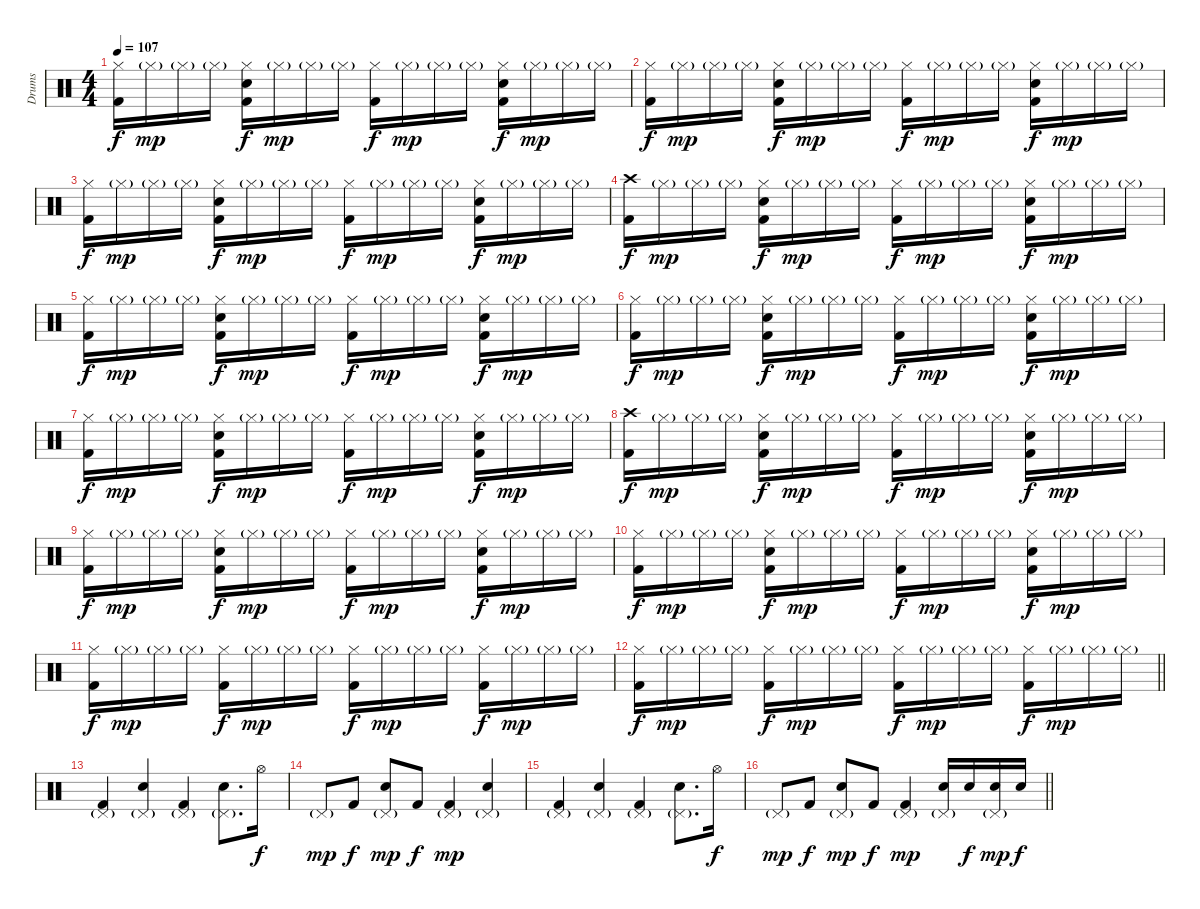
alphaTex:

\track ("Drums" "Drums") {instrument percussion}
\staff {score}
\articulation defaults
\ts (4 4)
\tempo 107
\clef neutral
\ks c
("Hi-Hat (closed)" "Kick (hit) 2").16{dy f} "Hi-Hat (closed)"{g}.16{dy mp} "Hi-Hat (closed)"{g}.16 "Hi-Hat (closed)"{g}.16 ("Hi-Hat (closed)" "Snare (hit) 2" "Kick (hit) 2").16{dy f} "Hi-Hat (closed)"{g}.16{dy mp} "Hi-Hat (closed)"{g}.16 "Hi-Hat (closed)"{g}.16 ("Hi-Hat (closed)" "Kick (hit) 2").16{dy f} "Hi-Hat (closed)"{g}.16{dy mp} "Hi-Hat (closed)"{g}.16 "Hi-Hat (closed)"{g}.16 ("Hi-Hat (closed)" "Snare (hit) 2" "Kick (hit) 2").16{dy f} "Hi-Hat (closed)"{g}.16{dy mp} "Hi-Hat (closed)"{g}.16 "Hi-Hat (closed)"{g}.16 |
("Hi-Hat (closed)" "Kick (hit) 2").16{dy f} "Hi-Hat (closed)"{g}.16{dy mp} "Hi-Hat (closed)"{g}.16 "Hi-Hat (closed)"{g}.16 ("Hi-Hat (closed)" "Snare (hit) 2" "Kick (hit) 2").16{dy f} "Hi-Hat (closed)"{g}.16{dy mp} "Hi-Hat (closed)"{g}.16 "Hi-Hat (closed)"{g}.16 ("Hi-Hat (closed)" "Kick (hit) 2").16{dy f} "Hi-Hat (closed)"{g}.16{dy mp} "Hi-Hat (closed)"{g}.16 "Hi-Hat (closed)"{g}.16 ("Hi-Hat (closed)" "Snare (hit) 2" "Kick (hit) 2").16{dy f} "Hi-Hat (closed)"{g}.16{dy mp} "Hi-Hat (closed)"{g}.16 "Hi-Hat (closed)"{g}.16 |
("Hi-Hat (closed)" "Kick (hit) 2").16{dy f} "Hi-Hat (closed)"{g}.16{dy mp} "Hi-Hat (closed)"{g}.16 "Hi-Hat (closed)"{g}.16 ("Hi-Hat (closed)" "Snare (hit) 2" "Kick (hit) 2").16{dy f} "Hi-Hat (closed)"{g}.16{dy mp} "Hi-Hat (closed)"{g}.16 "Hi-Hat (closed)"{g}.16 ("Hi-Hat (closed)" "Kick (hit) 2").16{dy f} "Hi-Hat (closed)"{g}.16{dy mp} "Hi-Hat (closed)"{g}.16 "Hi-Hat (closed)"{g}.16 ("Hi-Hat (closed)" "Snare (hit) 2" "Kick (hit) 2").16{dy f} "Hi-Hat (closed)"{g}.16{dy mp} "Hi-Hat (closed)"{g}.16 "Hi-Hat (closed)"{g}.16 |
("Crash high (hit)" "Kick (hit) 2").16{dy f} "Hi-Hat (closed)"{g}.16{dy mp} "Hi-Hat (closed)"{g}.16 "Hi-Hat (closed)"{g}.16 ("Hi-Hat (closed)" "Snare (hit) 2" "Kick (hit) 2").16{dy f} "Hi-Hat (closed)"{g}.16{dy mp} "Hi-Hat (closed)"{g}.16 "Hi-Hat (closed)"{g}.16 ("Hi-Hat (closed)" "Kick (hit) 2").16{dy f} "Hi-Hat (closed)"{g}.16{dy mp} "Hi-Hat (closed)"{g}.16 "Hi-Hat (closed)"{g}.16 ("Hi-Hat (closed)" "Snare (hit) 2" "Kick (hit) 2").16{dy f} "Hi-Hat (closed)"{g}.16{dy mp} "Hi-Hat (closed)"{g}.16 "Hi-Hat (closed)"{g}.16 |
("Hi-Hat (closed)" "Kick (hit) 2").16{dy f} "Hi-Hat (closed)"{g}.16{dy mp} "Hi-Hat (closed)"{g}.16 "Hi-Hat (closed)"{g}.16 ("Hi-Hat (closed)" "Snare (hit) 2" "Kick (hit) 2").16{dy f} "Hi-Hat (closed)"{g}.16{dy mp} "Hi-Hat (closed)"{g}.16 "Hi-Hat (closed)"{g}.16 ("Hi-Hat (closed)" "Kick (hit) 2").16{dy f} "Hi-Hat (closed)"{g}.16{dy mp} "Hi-Hat (closed)"{g}.16 "Hi-Hat (closed)"{g}.16 ("Hi-Hat (closed)" "Snare (hit) 2" "Kick (hit) 2").16{dy f} "Hi-Hat (closed)"{g}.16{dy mp} "Hi-Hat (closed)"{g}.16 "Hi-Hat (closed)"{g}.16 |
("Hi-Hat (closed)" "Kick (hit) 2").16{dy f} "Hi-Hat (closed)"{g}.16{dy mp} "Hi-Hat (closed)"{g}.16 "Hi-Hat (closed)"{g}.16 ("Hi-Hat (closed)" "Snare (hit) 2" "Kick (hit) 2").16{dy f} "Hi-Hat (closed)"{g}.16{dy mp} "Hi-Hat (closed)"{g}.16 "Hi-Hat (closed)"{g}.16 ("Hi-Hat (closed)" "Kick (hit) 2").16{dy f} "Hi-Hat (closed)"{g}.16{dy mp} "Hi-Hat (closed)"{g}.16 "Hi-Hat (closed)"{g}.16 ("Hi-Hat (closed)" "Snare (hit) 2" "Kick (hit) 2").16{dy f} "Hi-Hat (closed)"{g}.16{dy mp} "Hi-Hat (closed)"{g}.16 "Hi-Hat (closed)"{g}.16 |
("Hi-Hat (closed)" "Kick (hit) 2").16{dy f} "Hi-Hat (closed)"{g}.16{dy mp} "Hi-Hat (closed)"{g}.16 "Hi-Hat (closed)"{g}.16 ("Hi-Hat (closed)" "Snare (hit) 2" "Kick (hit) 2").16{dy f} "Hi-Hat (closed)"{g}.16{dy mp} "Hi-Hat (closed)"{g}.16 "Hi-Hat (closed)"{g}.16 ("Hi-Hat (closed)" "Kick (hit) 2").16{dy f} "Hi-Hat (closed)"{g}.16{dy mp} "Hi-Hat (closed)"{g}.16 "Hi-Hat (closed)"{g}.16 ("Hi-Hat (closed)" "Snare (hit) 2" "Kick (hit) 2").16{dy f} "Hi-Hat (closed)"{g}.16{dy mp} "Hi-Hat (closed)"{g}.16 "Hi-Hat (closed)"{g}.16 |
("Crash high (hit)" "Kick (hit) 2").16{dy f} "Hi-Hat (closed)"{g}.16{dy mp} "Hi-Hat (closed)"{g}.16 "Hi-Hat (closed)"{g}.16 ("Hi-Hat (closed)" "Snare (hit) 2" "Kick (hit) 2").16{dy f} "Hi-Hat (closed)"{g}.16{dy mp} "Hi-Hat (closed)"{g}.16 "Hi-Hat (closed)"{g}.16 ("Hi-Hat (closed)" "Kick (hit) 2").16{dy f} "Hi-Hat (closed)"{g}.16{dy mp} "Hi-Hat (closed)"{g}.16 "Hi-Hat (closed)"{g}.16 ("Hi-Hat (closed)" "Snare (hit) 2" "Kick (hit) 2").16{dy f} "Hi-Hat (closed)"{g}.16{dy mp} "Hi-Hat (closed)"{g}.16 "Hi-Hat (closed)"{g}.16 |
("Hi-Hat (closed)" "Kick (hit) 2").16{dy f} "Hi-Hat (closed)"{g}.16{dy mp} "Hi-Hat (closed)"{g}.16 "Hi-Hat (closed)"{g}.16 ("Hi-Hat (closed)" "Snare (hit) 2" "Kick (hit) 2").16{dy f} "Hi-Hat (closed)"{g}.16{dy mp} "Hi-Hat (closed)"{g}.16 "Hi-Hat (closed)"{g}.16 ("Hi-Hat (closed)" "Kick (hit) 2").16{dy f} "Hi-Hat (closed)"{g}.16{dy mp} "Hi-Hat (closed)"{g}.16 "Hi-Hat (closed)"{g}.16 ("Hi-Hat (closed)" "Snare (hit) 2" "Kick (hit) 2").16{dy f} "Hi-Hat (closed)"{g}.16{dy mp} "Hi-Hat (closed)"{g}.16 "Hi-Hat (closed)"{g}.16 |
("Hi-Hat (closed)" "Kick (hit) 2").16{dy f} "Hi-Hat (closed)"{g}.16{dy mp} "Hi-Hat (closed)"{g}.16 "Hi-Hat (closed)"{g}.16 ("Hi-Hat (closed)" "Snare (hit) 2" "Kick (hit) 2").16{dy f} "Hi-Hat (closed)"{g}.16{dy mp} "Hi-Hat (closed)"{g}.16 "Hi-Hat (closed)"{g}.16 ("Hi-Hat (closed)" "Kick (hit) 2").16{dy f} "Hi-Hat (closed)"{g}.16{dy mp} "Hi-Hat (closed)"{g}.16 "Hi-Hat (closed)"{g}.16 ("Hi-Hat (closed)" "Snare (hit) 2" "Kick (hit) 2").16{dy f} "Hi-Hat (closed)"{g}.16{dy mp} "Hi-Hat (closed)"{g}.16 "Hi-Hat (closed)"{g}.16 |
("Hi-Hat (closed)" "Kick (hit) 2").16{dy f} "Hi-Hat (closed)"{g}.16{dy mp} "Hi-Hat (closed)"{g}.16 "Hi-Hat (closed)"{g}.16 ("Hi-Hat (closed)" "Kick (hit) 2").16{dy f} "Hi-Hat (closed)"{g}.16{dy mp} "Hi-Hat (closed)"{g}.16 "Hi-Hat (closed)"{g}.16 ("Hi-Hat (closed)" "Kick (hit) 2").16{dy f} "Hi-Hat (closed)"{g}.16{dy mp} "Hi-Hat (closed)"{g}.16 "Hi-Hat (closed)"{g}.16 ("Hi-Hat (closed)" "Kick (hit) 2").16{dy f} "Hi-Hat (closed)"{g}.16{dy mp} "Hi-Hat (closed)"{g}.16 "Hi-Hat (closed)"{g}.16 |
\barLineRight lightlight
("Hi-Hat (closed)" "Kick (hit) 2").16{dy f} "Hi-Hat (closed)"{g}.16{dy mp} "Hi-Hat (closed)"{g}.16 "Hi-Hat (closed)"{g}.16 ("Hi-Hat (closed)" "Kick (hit) 2").16{dy f} "Hi-Hat (closed)"{g}.16{dy mp} "Hi-Hat (closed)"{g}.16 "Hi-Hat (closed)"{g}.16 ("Hi-Hat (closed)" "Kick (hit) 2").16{dy f} "Hi-Hat (closed)"{g}.16{dy mp} "Hi-Hat (closed)"{g}.16 "Hi-Hat (closed)"{g}.16 ("Hi-Hat (closed)" "Kick (hit) 2").16{dy f} "Hi-Hat (closed)"{g}.16{dy mp} "Hi-Hat (closed)"{g}.16 "Hi-Hat (closed)"{g}.16 |
("Pedal Hi-Hat (hit)"{g} "Kick (hit) 2").4 ("Pedal Hi-Hat (hit)"{g} "Snare (hit) 2").4 ("Pedal Hi-Hat (hit)"{g} "Kick (hit) 2").4 ("Pedal Hi-Hat (hit)"{g} "Snare (hit) 2").8{d} "Hi-Hat (open)".16{dy f} |
"Pedal Hi-Hat (hit)"{g}.8{dy mp} "Kick (hit) 2".8{dy f} ("Pedal Hi-Hat (hit)"{g} "Snare (hit) 2").8{dy mp} "Kick (hit) 2".8{dy f} ("Pedal Hi-Hat (hit)"{g} "Kick (hit) 2").4{dy mp} ("Pedal Hi-Hat (hit)"{g} "Snare (hit) 2").4 |
("Pedal Hi-Hat (hit)"{g} "Kick (hit) 2").4 ("Pedal Hi-Hat (hit)"{g} "Snare (hit) 2").4 ("Pedal Hi-Hat (hit)"{g} "Kick (hit) 2").4 ("Pedal Hi-Hat (hit)"{g} "Snare (hit) 2").8{d} "Hi-Hat (open)".16{dy f} |
\barLineRight lightlight "Pedal Hi-Hat (hit)"{g}.8{dy mp} "Kick (hit) 2".8{dy f}
("Pedal Hi-Hat (hit)"{g} "Snare (hit) 2").8{dy mp} "Kick (hit) 2".8{dy f} ("Pedal Hi-Hat (hit)"{g} "Kick (hit) 2").4{dy mp} ("Pedal Hi-Hat (hit)"{g} "Snare (hit) 2").16 "Snare (hit) 2".16{dy f} ("Pedal Hi-Hat (hit)"{g} "Snare (hit) 2").16{dy mp} "Snare (hit) 2".16{dy f}
